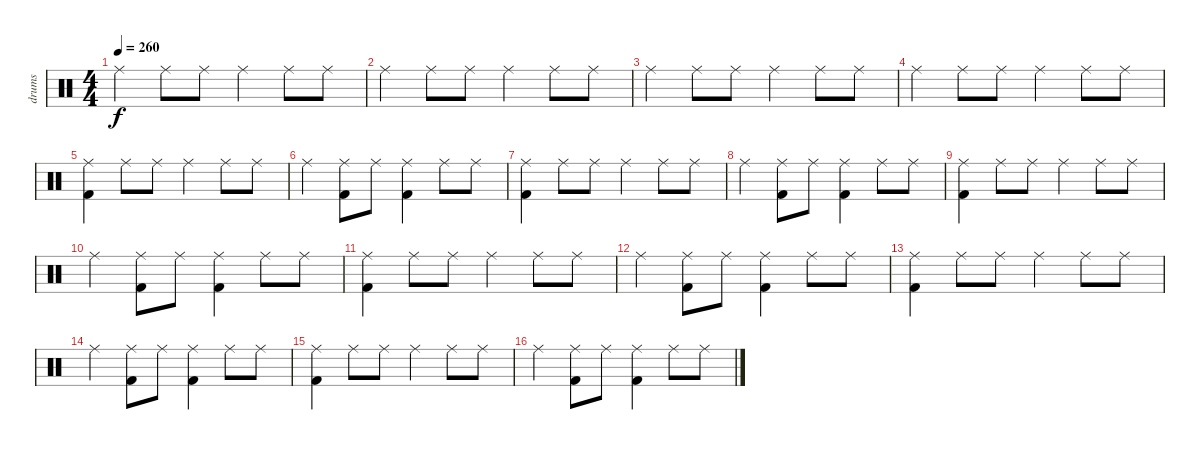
\track ("drums" "drums") {instrument percussion}
\staff {score}
\articulation defaults
\ts (4 4)
\tempo 260
\clef neutral
\ks c "Ride (middle)".4{dy f} "Ride (middle)".8 "Ride (middle)".8 "Ride (middle)".4 "Ride (middle)".8 "Ride (middle)".8
|
"Ride (middle)".4 "Ride (middle)".8 "Ride (middle)".8 "Ride (middle)".4 "Ride (middle)".8 "Ride (middle)".8 |
"Ride (middle)".4 "Ride (middle)".8 "Ride (middle)".8 "Ride (middle)".4 "Ride (middle)".8 "Ride (middle)".8 |
"Ride (middle)".4 "Ride (middle)".8 "Ride (middle)".8 "Ride (middle)".4 "Ride (middle)".8 "Ride (middle)".8 |
("Ride (middle)" "Kick (hit) 2").4 "Ride (middle)".8 "Ride (middle)".8 "Ride (middle)".4 "Ride (middle)".8 "Ride (middle)".8 |
"Ride (middle)".4 ("Ride (middle)" "Kick (hit) 2").8 "Ride (middle)".8 ("Ride (middle)" "Kick (hit) 2").4 "Ride (middle)".8 "Ride (middle)".8 |
("Ride (middle)" "Kick (hit) 2").4 "Ride (middle)".8 "Ride (middle)".8 "Ride (middle)".4 "Ride (middle)".8 "Ride (middle)".8 |
"Ride (middle)".4 ("Ride (middle)" "Kick (hit) 2").8 "Ride (middle)".8 ("Ride (middle)" "Kick (hit) 2").4 "Ride (middle)".8 "Ride (middle)".8 |
("Ride (middle)" "Kick (hit) 2").4 "Ride (middle)".8 "Ride (middle)".8 "Ride (middle)".4 "Ride (middle)".8 "Ride (middle)".8 |
"Ride (middle)".4 ("Ride (middle)" "Kick (hit) 2").8 "Ride (middle)".8 ("Ride (middle)" "Kick (hit) 2").4 "Ride (middle)".8 "Ride (middle)".8 |
("Ride (middle)" "Kick (hit) 2").4 "Ride (middle)".8 "Ride (middle)".8 "Ride (middle)".4 "Ride (middle)".8 "Ride (middle)".8 |
"Ride (middle)".4 ("Ride (middle)" "Kick (hit) 2").8 "Ride (middle)".8 ("Ride (middle)" "Kick (hit) 2").4 "Ride (middle)".8 "Ride (middle)".8 |
("Ride (middle)" "Kick (hit) 2").4 "Ride (middle)".8 "Ride (middle)".8 "Ride (middle)".4 "Ride (middle)".8 "Ride (middle)".8 |
"Ride (middle)".4 ("Ride (middle)" "Kick (hit) 2").8 "Ride (middle)".8 ("Ride (middle)" "Kick (hit) 2").4 "Ride (middle)".8 "Ride (middle)".8 |
("Ride (middle)" "Kick (hit) 2").4 "Ride (middle)".8 "Ride (middle)".8 "Ride (middle)".4 "Ride (middle)".8 "Ride (middle)".8 |
"Ride (middle)".4 ("Ride (middle)" "Kick (hit) 2").8 "Ride (middle)".8 ("Ride (middle)" "Kick (hit) 2").4 "Ride (middle)".8 "Ride (middle)".8
